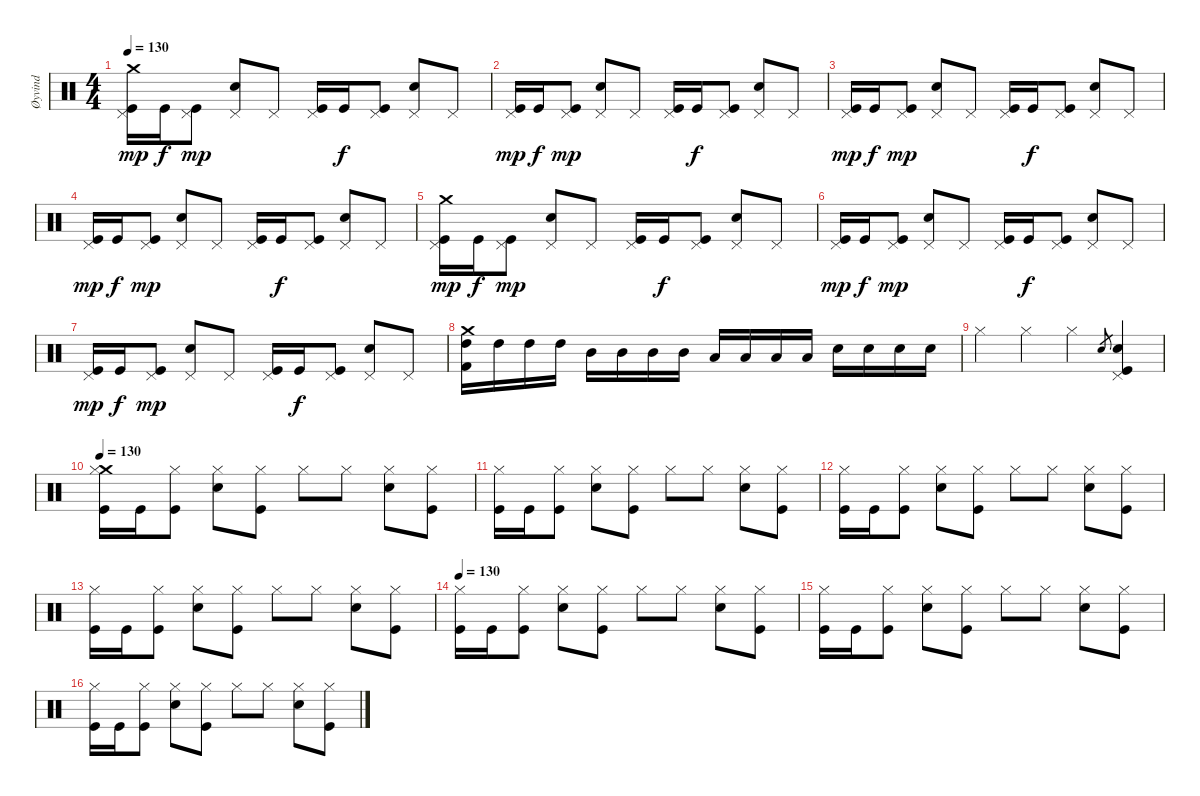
\track ("Øyvind" "Øyvind") {instrument percussion}
\staff {score}
\articulation defaults
\ts (4 4)
\tempo 130
\clef neutral
\ks c
("Crash medium (hit)" "Pedal Hi-Hat (hit)" "Kick (hit)").16{dy mp} "Kick (hit)".16{dy f} ("Pedal Hi-Hat (hit)" "Kick (hit)").8{dy mp} ("Pedal Hi-Hat (hit)" "Snare (hit) 2").8 "Pedal Hi-Hat (hit)".8 ("Pedal Hi-Hat (hit)" "Kick (hit)").16 "Kick (hit)".16{dy f} ("Pedal Hi-Hat (hit)" "Kick (hit)").8 ("Pedal Hi-Hat (hit)" "Snare (hit) 2").8 "Pedal Hi-Hat (hit)".8 |
("Pedal Hi-Hat (hit)" "Kick (hit)").16{dy mp} "Kick (hit)".16{dy f} ("Pedal Hi-Hat (hit)" "Kick (hit)").8{dy mp} ("Pedal Hi-Hat (hit)" "Snare (hit) 2").8 "Pedal Hi-Hat (hit)".8 ("Pedal Hi-Hat (hit)" "Kick (hit)").16 "Kick (hit)".16{dy f} ("Pedal Hi-Hat (hit)" "Kick (hit)").8 ("Pedal Hi-Hat (hit)" "Snare (hit) 2").8 "Pedal Hi-Hat (hit)".8 |
("Pedal Hi-Hat (hit)" "Kick (hit)").16{dy mp} "Kick (hit)".16{dy f} ("Pedal Hi-Hat (hit)" "Kick (hit)").8{dy mp} ("Pedal Hi-Hat (hit)" "Snare (hit) 2").8 "Pedal Hi-Hat (hit)".8 ("Pedal Hi-Hat (hit)" "Kick (hit)").16 "Kick (hit)".16{dy f} ("Pedal Hi-Hat (hit)" "Kick (hit)").8 ("Pedal Hi-Hat (hit)" "Snare (hit) 2").8 "Pedal Hi-Hat (hit)".8 |
("Pedal Hi-Hat (hit)" "Kick (hit)").16{dy mp} "Kick (hit)".16{dy f} ("Pedal Hi-Hat (hit)" "Kick (hit)").8{dy mp} ("Pedal Hi-Hat (hit)" "Snare (hit) 2").8 "Pedal Hi-Hat (hit)".8 ("Pedal Hi-Hat (hit)" "Kick (hit)").16 "Kick (hit)".16{dy f} ("Pedal Hi-Hat (hit)" "Kick (hit)").8 ("Pedal Hi-Hat (hit)" "Snare (hit) 2").8 "Pedal Hi-Hat (hit)".8 |
("Crash medium (hit)" "Pedal Hi-Hat (hit)" "Kick (hit)").16{dy mp} "Kick (hit)".16{dy f} ("Pedal Hi-Hat (hit)" "Kick (hit)").8{dy mp} ("Pedal Hi-Hat (hit)" "Snare (hit) 2").8 "Pedal Hi-Hat (hit)".8 ("Pedal Hi-Hat (hit)" "Kick (hit)").16 "Kick (hit)".16{dy f} ("Pedal Hi-Hat (hit)" "Kick (hit)").8 ("Pedal Hi-Hat (hit)" "Snare (hit) 2").8 "Pedal Hi-Hat (hit)".8 |
("Pedal Hi-Hat (hit)" "Kick (hit)").16{dy mp} "Kick (hit)".16{dy f} ("Pedal Hi-Hat (hit)" "Kick (hit)").8{dy mp} ("Pedal Hi-Hat (hit)" "Snare (hit) 2").8 "Pedal Hi-Hat (hit)".8 ("Pedal Hi-Hat (hit)" "Kick (hit)").16 "Kick (hit)".16{dy f} ("Pedal Hi-Hat (hit)" "Kick (hit)").8 ("Pedal Hi-Hat (hit)" "Snare (hit) 2").8 "Pedal Hi-Hat (hit)".8 |
("Pedal Hi-Hat (hit)" "Kick (hit)").16{dy mp} "Kick (hit)".16{dy f} ("Pedal Hi-Hat (hit)" "Kick (hit)").8{dy mp} ("Pedal Hi-Hat (hit)" "Snare (hit) 2").8 "Pedal Hi-Hat (hit)".8 ("Pedal Hi-Hat (hit)" "Kick (hit)").16 "Kick (hit)".16{dy f} ("Pedal Hi-Hat (hit)" "Kick (hit)").8 ("Pedal Hi-Hat (hit)" "Snare (hit) 2").8 "Pedal Hi-Hat (hit)".8 |
("High Tom (hit)" "Crash medium (hit)" "Kick (hit) 2").16 "High Tom (hit)".16 "High Tom (hit)".16 "High Tom (hit)".16 "Mid Tom (hit)".16 "Mid Tom (hit)".16 "Mid Tom (hit)".16 "Mid Tom (hit)".16 "Low Tom (hit)".16 "Low Tom (hit)".16 "Low Tom (hit)".16 "Low Tom (hit)".16 "Snare (hit) 2".16 "Snare (hit) 2".16 "Snare (hit) 2".16 "Snare (hit) 2".16 |
"Hi-Hat (closed)".4 "Hi-Hat (closed)".4 "Hi-Hat (closed)".4 "Snare (hit) 2".8{gr} ("Pedal Hi-Hat (hit)" "Kick (hit)" "Snare (hit) 2").4 |
\tempo 130
("Crash medium (hit)" "Hi-Hat (closed)" "Kick (hit)").16 "Kick (hit)".16 ("Hi-Hat (closed)" "Kick (hit)").8 ("Hi-Hat (closed)" "Snare (hit) 2").8 ("Hi-Hat (closed)" "Kick (hit)").8 "Hi-Hat (closed)".8 "Hi-Hat (closed)".8 ("Hi-Hat (closed)" "Snare (hit) 2").8 ("Hi-Hat (closed)" "Kick (hit)").8 |
("Hi-Hat (closed)" "Kick (hit)").16 "Kick (hit)".16 ("Hi-Hat (closed)" "Kick (hit)").8 ("Hi-Hat (closed)" "Snare (hit) 2").8 ("Hi-Hat (closed)" "Kick (hit)").8 "Hi-Hat (closed)".8 "Hi-Hat (closed)".8 ("Hi-Hat (closed)" "Snare (hit) 2").8 ("Hi-Hat (closed)" "Kick (hit)").8 |
("Hi-Hat (closed)" "Kick (hit)").16 "Kick (hit)".16 ("Hi-Hat (closed)" "Kick (hit)").8 ("Hi-Hat (closed)" "Snare (hit) 2").8 ("Hi-Hat (closed)" "Kick (hit)").8 "Hi-Hat (closed)".8 "Hi-Hat (closed)".8 ("Hi-Hat (closed)" "Snare (hit) 2").8 ("Hi-Hat (closed)" "Kick (hit)").8 |
("Hi-Hat (closed)" "Kick (hit)").16 "Kick (hit)".16 ("Hi-Hat (closed)" "Kick (hit)").8 ("Hi-Hat (closed)" "Snare (hit) 2").8 ("Hi-Hat (closed)" "Kick (hit)").8 "Hi-Hat (closed)".8 "Hi-Hat (closed)".8 ("Hi-Hat (closed)" "Snare (hit) 2").8 ("Hi-Hat (closed)" "Kick (hit)").8 |
\tempo 130
("Hi-Hat (closed)" "Kick (hit)").16 "Kick (hit)".16 ("Hi-Hat (closed)" "Kick (hit)").8 ("Hi-Hat (closed)" "Snare (hit) 2").8 ("Hi-Hat (closed)" "Kick (hit)").8 "Hi-Hat (closed)".8 "Hi-Hat (closed)".8 ("Hi-Hat (closed)" "Snare (hit) 2").8 ("Hi-Hat (closed)" "Kick (hit)").8 |
("Hi-Hat (closed)" "Kick (hit)").16 "Kick (hit)".16 ("Hi-Hat (closed)" "Kick (hit)").8 ("Hi-Hat (closed)" "Snare (hit) 2").8 ("Hi-Hat (closed)" "Kick (hit)").8 "Hi-Hat (closed)".8 "Hi-Hat (closed)".8 ("Hi-Hat (closed)" "Snare (hit) 2").8 ("Hi-Hat (closed)" "Kick (hit)").8 |
("Hi-Hat (closed)" "Kick (hit)").16 "Kick (hit)".16 ("Hi-Hat (closed)" "Kick (hit)").8 ("Hi-Hat (closed)" "Snare (hit) 2").8 ("Hi-Hat (closed)" "Kick (hit)").8 "Hi-Hat (closed)".8 "Hi-Hat (closed)".8 ("Hi-Hat (closed)" "Snare (hit) 2").8 ("Hi-Hat (closed)" "Kick (hit)").8
